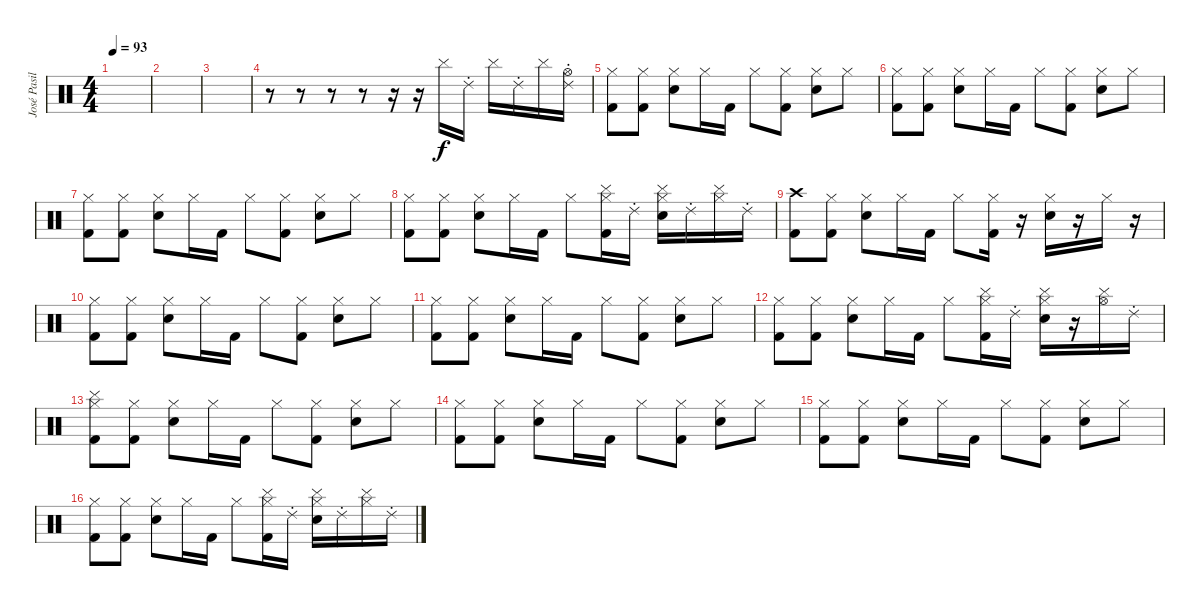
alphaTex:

\track ("José Pasillas/DJ Kilmore" "José Pasil") {instrument percussion}
\staff {score}
\articulation defaults
\ts (4 4)
\tempo 93
\clef neutral
\ks c
|
|
|
r.8 r.8 r.8 r.8 r.16 r.16 "Cymbal (hit)".16 "Ride (choke) 2".16 "Cymbal (hit)".16 "Ride (choke) 2".16 "Cymbal (hit)".16 ("Hi-Hat (open)" "Ride (choke) 2").16 |
("Hi-Hat (closed)" "Kick (hit) 2").8 ("Hi-Hat (closed)" "Kick (hit) 2").8 ("Hi-Hat (closed)" "Electric Snare (hit)").8 "Hi-Hat (closed)".16 "Kick (hit) 2".16 "Hi-Hat (closed)".8 ("Hi-Hat (closed)" "Kick (hit) 2").8 ("Hi-Hat (closed)" "Electric Snare (hit)").8 "Hi-Hat (closed)".8 |
("Hi-Hat (closed)" "Kick (hit) 2").8 ("Hi-Hat (closed)" "Kick (hit) 2").8 ("Hi-Hat (closed)" "Electric Snare (hit)").8 "Hi-Hat (closed)".16 "Kick (hit) 2".16 "Hi-Hat (closed)".8 ("Hi-Hat (closed)" "Kick (hit) 2").8 ("Hi-Hat (closed)" "Electric Snare (hit)").8 "Hi-Hat (closed)".8 |
("Hi-Hat (closed)" "Kick (hit) 2").8 ("Hi-Hat (closed)" "Kick (hit) 2").8 ("Hi-Hat (closed)" "Electric Snare (hit)").8 "Hi-Hat (closed)".16 "Kick (hit) 2".16 "Hi-Hat (closed)".8 ("Hi-Hat (closed)" "Kick (hit) 2").8 ("Hi-Hat (closed)" "Electric Snare (hit)").8 "Hi-Hat (closed)".8 |
("Hi-Hat (closed)" "Kick (hit) 2").8 ("Hi-Hat (closed)" "Kick (hit) 2").8 ("Hi-Hat (closed)" "Electric Snare (hit)").8 "Hi-Hat (closed)".16 "Kick (hit) 2".16 "Hi-Hat (closed)".8 ("Hi-Hat (closed)" "Cymbal (hit)" "Kick (hit) 2").16 "Ride (choke) 2".16 ("Hi-Hat (closed)" "Cymbal (hit)" "Electric Snare (hit)").16 "Ride (choke) 2".16 ("Hi-Hat (closed)" "Cymbal (hit)").16 "Ride (choke) 2".16 |
("Crash high (hit)" "Kick (hit) 2").8 ("Hi-Hat (closed)" "Kick (hit) 2").8 ("Hi-Hat (closed)" "Electric Snare (hit)").8 "Hi-Hat (closed)".16 "Kick (hit) 2".16 "Hi-Hat (closed)".8 ("Hi-Hat (closed)" "Kick (hit) 2").16 r.16 ("Hi-Hat (closed)" "Electric Snare (hit)").16 r.16 "Hi-Hat (closed)".16 r.16 |
("Hi-Hat (closed)" "Kick (hit) 2").8 ("Hi-Hat (closed)" "Kick (hit) 2").8 ("Hi-Hat (closed)" "Electric Snare (hit)").8 "Hi-Hat (closed)".16 "Kick (hit) 2".16 "Hi-Hat (closed)".8 ("Hi-Hat (closed)" "Kick (hit) 2").8 ("Hi-Hat (closed)" "Electric Snare (hit)").8 "Hi-Hat (closed)".8 |
("Hi-Hat (closed)" "Kick (hit) 2").8 ("Hi-Hat (closed)" "Kick (hit) 2").8 ("Hi-Hat (closed)" "Electric Snare (hit)").8 "Hi-Hat (closed)".16 "Kick (hit) 2".16 "Hi-Hat (closed)".8 ("Hi-Hat (closed)" "Kick (hit) 2").8 ("Hi-Hat (closed)" "Electric Snare (hit)").8 "Hi-Hat (closed)".8 |
("Hi-Hat (closed)" "Kick (hit) 2").8 ("Hi-Hat (closed)" "Kick (hit) 2").8 ("Hi-Hat (closed)" "Electric Snare (hit)").8 "Hi-Hat (closed)".16 "Kick (hit) 2".16 "Hi-Hat (closed)".8 ("Hi-Hat (closed)" "Cymbal (hit)" "Kick (hit) 2").16 "Ride (choke) 2".16 ("Hi-Hat (closed)" "Cymbal (hit)" "Electric Snare (hit)").16 r.16 ("Hi-Hat (open)" "Cymbal (hit)").16 "Ride (choke) 2".16 |
("Hi-Hat (closed)" "Cymbal (hit)" "Kick (hit) 2").8 ("Hi-Hat (closed)" "Kick (hit) 2").8 ("Hi-Hat (closed)" "Electric Snare (hit)").8 "Hi-Hat (closed)".16 "Kick (hit) 2".16 "Hi-Hat (closed)".8 ("Hi-Hat (closed)" "Kick (hit) 2").8 ("Hi-Hat (closed)" "Electric Snare (hit)").8 "Hi-Hat (closed)".8 |
("Hi-Hat (closed)" "Kick (hit) 2").8 ("Hi-Hat (closed)" "Kick (hit) 2").8 ("Hi-Hat (closed)" "Electric Snare (hit)").8 "Hi-Hat (closed)".16 "Kick (hit) 2".16 "Hi-Hat (closed)".8 ("Hi-Hat (closed)" "Kick (hit) 2").8 ("Hi-Hat (closed)" "Electric Snare (hit)").8 "Hi-Hat (closed)".8 |
("Hi-Hat (closed)" "Kick (hit) 2").8 ("Hi-Hat (closed)" "Kick (hit) 2").8 ("Hi-Hat (closed)" "Electric Snare (hit)").8 "Hi-Hat (closed)".16 "Kick (hit) 2".16 "Hi-Hat (closed)".8 ("Hi-Hat (closed)" "Kick (hit) 2").8 ("Hi-Hat (closed)" "Electric Snare (hit)").8 "Hi-Hat (closed)".8 |
("Hi-Hat (closed)" "Kick (hit) 2").8 ("Hi-Hat (closed)" "Kick (hit) 2").8 ("Hi-Hat (closed)" "Electric Snare (hit)").8 "Hi-Hat (closed)".16 "Kick (hit) 2".16 "Hi-Hat (closed)".8 ("Hi-Hat (closed)" "Cymbal (hit)" "Kick (hit) 2").16 "Ride (choke) 2".16 ("Hi-Hat (closed)" "Cymbal (hit)" "Electric Snare (hit)").16 "Ride (choke) 2".16 ("Hi-Hat (closed)" "Cymbal (hit)").16 "Ride (choke) 2".16
